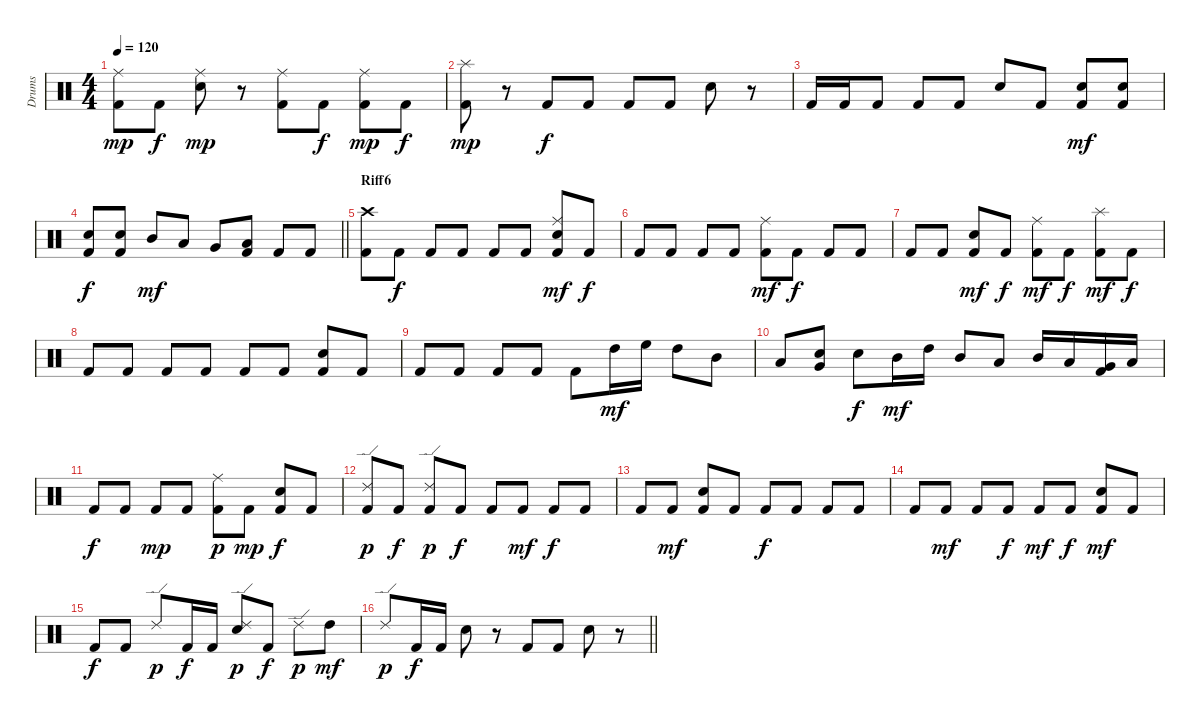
\track ("Drums" "Drums") {instrument percussion}
\staff {score}
\articulation defaults
\ts (4 4)
\tempo 120
\clef neutral
\ks c
("Kick (hit) 2" "Ride (middle)").8{dy mp} "Kick (hit) 2".8{dy f} ("Ride (middle)" "Snare (hit) 2").8{dy mp} r.8 ("Kick (hit) 2" "Ride (middle)").8 "Kick (hit) 2".8{dy f} ("Kick (hit) 2" "Ride (middle)").8{dy mp} "Kick (hit) 2".8{dy f} |
("Kick (hit) 2" "Splash (hit)").8{dy mp} r.8 "Kick (hit) 2".8{dy f} "Kick (hit) 2".8 "Kick (hit) 2".8 "Kick (hit) 2".8 "Snare (hit) 2".8 r.8 |
"Kick (hit) 2".16 "Kick (hit) 2".16 "Kick (hit) 2".8 "Kick (hit) 2".8 "Kick (hit) 2".8 "Snare (hit) 2".8 "Kick (hit) 2".8 ("Kick (hit) 2" "Snare (hit) 2").8{dy mf} ("Kick (hit) 2" "Snare (hit) 2").8 |
\barLineRight lightlight
("Kick (hit) 2" "Snare (hit) 2").8{dy f} ("Kick (hit) 2" "Snare (hit) 2").8 "Mid Tom (hit)".8{dy mf} "Low Tom (hit)".8 "Very Low Tom (hit)".8 ("Kick (hit) 2" "Low Floor Tom (hit)").8 "Kick (hit) 2".8 "Kick (hit) 2".8 |
\section ("" "Riff6")
("Kick (hit) 2" "Crash high (hit)").8 "Kick (hit) 2".8{dy f} "Kick (hit) 2".8 "Kick (hit) 2".8 "Kick (hit) 2".8 "Kick (hit) 2".8 ("Kick (hit) 2" "Ride (middle)" "Snare (hit) 2").8{dy mf} "Kick (hit) 2".8{dy f} |
"Kick (hit) 2".8 "Kick (hit) 2".8 "Kick (hit) 2".8 "Kick (hit) 2".8 ("Kick (hit) 2" "Ride (middle)").8{dy mf} "Kick (hit) 2".8{dy f} "Kick (hit) 2".8 "Kick (hit) 2".8 |
"Kick (hit) 2".8 "Kick (hit) 2".8 ("Kick (hit) 2" "Snare (hit) 2").8{dy mf} "Kick (hit) 2".8{dy f} ("Kick (hit) 2" "Ride (middle)").8{dy mf} "Kick (hit) 2".8{dy f} ("Kick (hit) 2" "Splash (hit)").8{dy mf} "Kick (hit) 2".8{dy f} |
"Kick (hit) 2".8 "Kick (hit) 2".8 "Kick (hit) 2".8 "Kick (hit) 2".8 "Kick (hit) 2".8 "Kick (hit) 2".8 ("Kick (hit) 2" "Snare (hit) 2").8 "Kick (hit) 2".8 |
"Kick (hit) 2".8 "Kick (hit) 2".8 "Kick (hit) 2".8 "Kick (hit) 2".8 "Kick (hit) 2".8 "High Tom (hit)".16{dy mf} "High Floor Tom (hit)".16 "High Tom (hit)".8 "Mid Tom (hit)".8 |
"Low Tom (hit)".8 ("Snare (hit) 2" "Very Low Tom (hit)").8 "Snare (hit) 2".8{dy f} "Mid Tom (hit)".16{dy mf} "High Tom (hit)".16 "Mid Tom (hit)".8 "Low Tom (hit)".8 "Mid Tom (hit)".16 "Low Tom (hit)".16 ("Kick (hit) 2" "Very Low Tom (hit)").16 "Low Floor Tom (hit)".16 |
"Kick (hit) 2".8{dy f} "Kick (hit) 2".8 "Kick (hit) 2".8{dy mp} "Kick (hit) 2".8 ("Kick (hit) 2" "Ride (middle)").8{dy p} "Kick (hit) 2".8{dy mp} ("Kick (hit) 2" "Snare (hit) 2").8{dy f} "Kick (hit) 2".8 |
("Kick (hit) 2" "Ride (edge) 2").8{dy p} "Kick (hit) 2".8{dy f} ("Kick (hit) 2" "Ride (edge) 2").8{dy p} "Kick (hit) 2".8{dy f} "Kick (hit) 2".8 "Kick (hit) 2".8{dy mf} "Kick (hit) 2".8{dy f} "Kick (hit) 2".8 |
"Kick (hit) 2".8 "Kick (hit) 2".8{dy mf} ("Kick (hit) 2" "Snare (hit) 2").8 "Kick (hit) 2".8 "Kick (hit) 2".8{dy f} "Kick (hit) 2".8 "Kick (hit) 2".8 "Kick (hit) 2".8 |
"Kick (hit) 2".8 "Kick (hit) 2".8{dy mf} "Kick (hit) 2".8 "Kick (hit) 2".8{dy f} "Kick (hit) 2".8{dy mf} "Kick (hit) 2".8{dy f} ("Kick (hit) 2" "Snare (hit) 2").8{dy mf} "Kick (hit) 2".8 |
"Kick (hit) 2".8{dy f} "Kick (hit) 2".8 "Ride (edge) 2".8{dy p} "Kick (hit) 2".16{dy f} "Kick (hit) 2".16 ("Ride (edge) 2" "Snare (hit) 2").8{dy p} "Kick (hit) 2".8{dy f} "Ride (edge) 2".8{dy p} "High Tom (hit)".8{dy mf} |
\barLineRight lightlight "Ride (edge) 2".8{dy p} "Kick (hit) 2".16{dy f} "Kick (hit) 2".16 "Snare (hit) 2".8
r.8 "Kick (hit) 2".8 "Kick (hit) 2".8 "Snare (hit) 2".8 r.8
